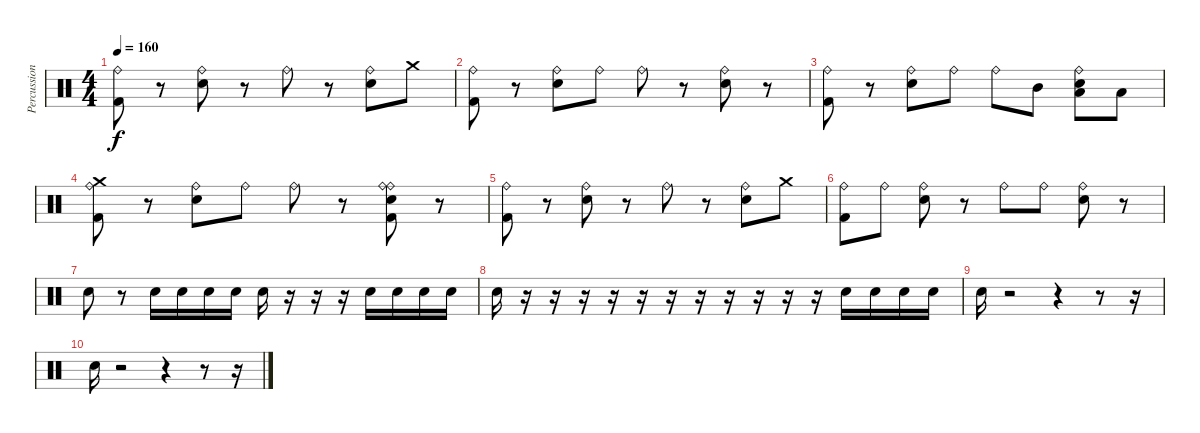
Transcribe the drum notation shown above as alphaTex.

\track ("Percussion" "Percussion") {instrument percussion}
\staff {score}
\articulation defaults
\ts (4 4)
\tempo 160
\clef neutral
\ks c
("Ride (bell)" "Kick (hit) 2").8{dy f} r.8 ("Ride (bell)" "Electric Snare (hit)").8 r.8 "Ride (bell)".8 r.8 ("Ride (bell)" "Electric Snare (hit)").8 "Crash medium (hit)".8 |
("Ride (bell)" "Kick (hit) 2").8 r.8 ("Ride (bell)" "Electric Snare (hit)").8 "Ride (bell)".8 "Ride (bell)".8 r.8 ("Ride (bell)" "Electric Snare (hit)").8 r.8 |
("Ride (bell)" "Kick (hit) 2").8 r.8 ("Ride (bell)" "Electric Snare (hit)").8 "Ride (bell)".8 "Ride (bell)".8 "Mid Tom (hit)".8 ("Low Tom (hit)" "Ride (bell)" "Electric Snare (hit)").8 "Low Floor Tom (hit)".8 |
("Crash medium (hit)" "Ride (bell)" "Kick (hit) 2").8 r.8 ("Ride (bell)" "Electric Snare (hit)").8 "Ride (bell)".8 "Ride (bell)".8 r.8 ("Ride (bell)" "Kick (hit) 2" "Ride (bell)" "Electric Snare (hit)").8 r.8 |
("Ride (bell)" "Kick (hit) 2").8 r.8 ("Ride (bell)" "Electric Snare (hit)").8 r.8 "Ride (bell)".8 r.8 ("Ride (bell)" "Electric Snare (hit)").8 "Crash medium (hit)".8 |
("Ride (bell)" "Kick (hit) 2").8 "Ride (bell)".8 ("Ride (bell)" "Electric Snare (hit)").8 r.8 "Ride (bell)".8 "Ride (bell)".8 ("Ride (bell)" "Electric Snare (hit)").8 r.8 |
"Electric Snare (hit)".8 r.8 "Electric Snare (hit)".16 "Electric Snare (hit)".16 "Electric Snare (hit)".16 "Electric Snare (hit)".16 "Electric Snare (hit)".16 r.16 r.16 r.16 "Electric Snare (hit)".16 "Electric Snare (hit)".16 "Electric Snare (hit)".16 "Electric Snare (hit)".16 |
"Electric Snare (hit)".16 r.16 r.16 r.16 r.16 r.16 r.16 r.16 r.16 r.16 r.16 r.16 "Electric Snare (hit)".16 "Electric Snare (hit)".16 "Electric Snare (hit)".16 "Electric Snare (hit)".16 |
"Electric Snare (hit)".16 r.2 r.4 r.8 r.16 |
"Electric Snare (hit)".16 r.2 r.4 r.8 r.16
